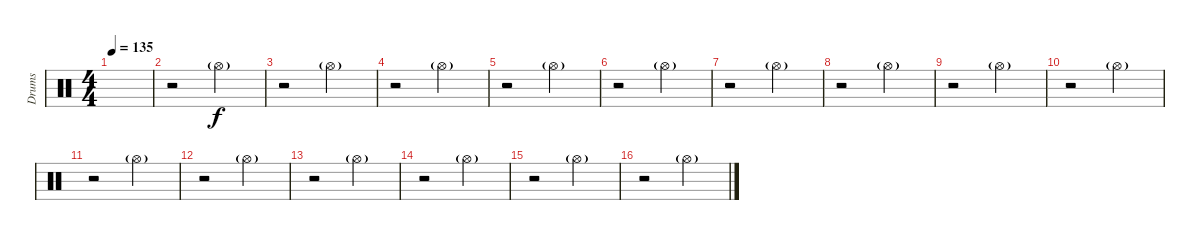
\track ("Drums" "Drums") {instrument percussion}
\staff {score}
\articulation defaults
\ts (4 4)
\tempo 135
\clef neutral
\ks c
|
r.2{volume 11} "Hi-Hat (open)"{g}.2 |
r.2 "Hi-Hat (open)"{g}.2 |
r.2 "Hi-Hat (open)"{g}.2 |
r.2 "Hi-Hat (open)"{g}.2 |
r.2 "Hi-Hat (open)"{g}.2 |
r.2 "Hi-Hat (open)"{g}.2 |
r.2 "Hi-Hat (open)"{g}.2 |
r.2 "Hi-Hat (open)"{g}.2 |
r.2 "Hi-Hat (open)"{g}.2 |
r.2 "Hi-Hat (open)"{g}.2 |
r.2 "Hi-Hat (open)"{g}.2 |
r.2 "Hi-Hat (open)"{g}.2 |
r.2 "Hi-Hat (open)"{g}.2 |
r.2 "Hi-Hat (open)"{g}.2 |
r.2 "Hi-Hat (open)"{g}.2
